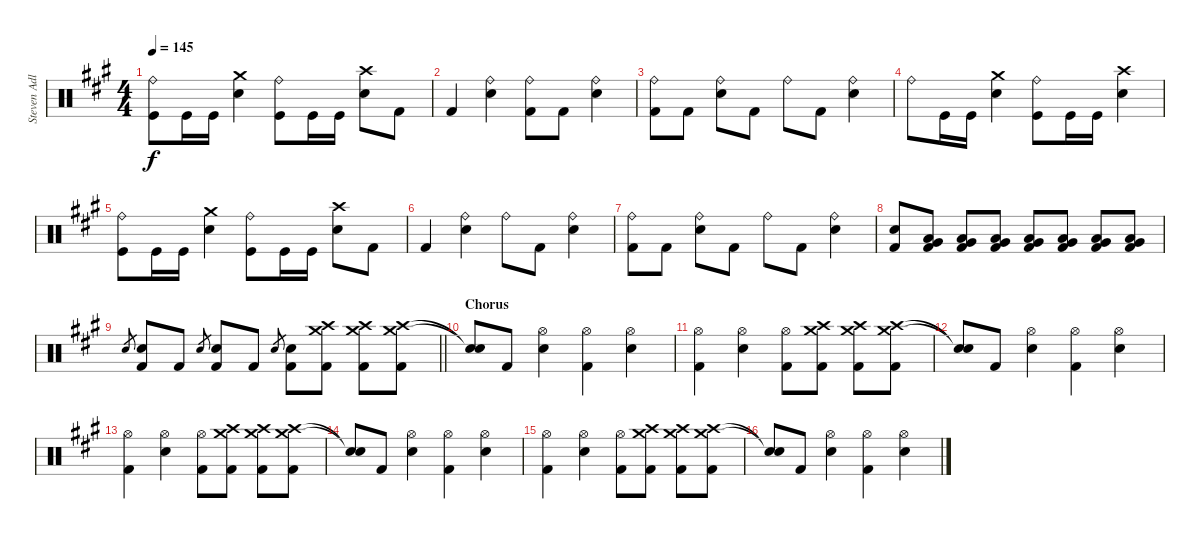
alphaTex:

\track ("Steven Adler - Drums" "Steven Adl") {instrument percussion}
\staff {score}
\articulation defaults
\ts (4 4)
\tempo 145
\clef neutral
\ks a
("Ride (bell)" "Kick (hit)").8{dy f} "Kick (hit)".16 "Kick (hit)".16 ("Crash medium (hit)" "Snare (hit) 2").4 ("Ride (bell)" "Kick (hit)").8 "Kick (hit)".16 "Kick (hit)".16 ("Crash high (hit)" "Snare (hit) 2").8 "Kick (hit) 2".8 |
"Kick (hit) 2".4 ("Ride (bell)" "Snare (hit) 2").4 ("Ride (bell)" "Kick (hit) 2").8 "Kick (hit) 2".8 ("Ride (bell)" "Snare (hit) 2").4 |
("Ride (bell)" "Kick (hit) 2").8 "Kick (hit) 2".8 ("Ride (bell)" "Snare (hit) 2").8 "Kick (hit) 2".8 "Ride (bell)".8 "Kick (hit) 2".8 ("Ride (bell)" "Snare (hit) 2").4 |
"Ride (bell)".8 "Kick (hit)".16 "Kick (hit)".16 ("Crash medium (hit)" "Snare (hit) 2").4 ("Ride (bell)" "Kick (hit)").8 "Kick (hit)".16 "Kick (hit)".16 ("Crash high (hit)" "Snare (hit) 2").4 |
("Ride (bell)" "Kick (hit)").8 "Kick (hit)".16 "Kick (hit)".16 ("Crash medium (hit)" "Snare (hit) 2").4 ("Ride (bell)" "Kick (hit)").8 "Kick (hit)".16 "Kick (hit)".16 ("Crash high (hit)" "Snare (hit) 2").8 "Kick (hit) 2".8 |
"Kick (hit) 2".4 ("Ride (bell)" "Snare (hit) 2").4 "Ride (bell)".8 "Kick (hit) 2".8 ("Ride (bell)" "Snare (hit) 2").4 |
("Ride (bell)" "Kick (hit) 2").8 "Kick (hit) 2".8 ("Ride (bell)" "Snare (hit) 2").8 "Kick (hit) 2".8 "Ride (bell)".8 "Kick (hit) 2".8 ("Ride (bell)" "Snare (hit) 2").4 |
("Snare (hit) 2" "Kick (hit) 2").8 ("Very Low Tom (hit)" "Low Tom (hit)" "Kick (hit) 2").8 ("Very Low Tom (hit)" "Low Tom (hit)" "Kick (hit) 2").8 ("Very Low Tom (hit)" "Low Tom (hit)" "Kick (hit) 2").8 ("Very Low Tom (hit)" "Low Tom (hit)" "Kick (hit) 2").8 ("Very Low Tom (hit)" "Low Tom (hit)" "Kick (hit) 2").8 ("Very Low Tom (hit)" "Low Tom (hit)" "Kick (hit) 2").8 ("Very Low Tom (hit)" "Low Tom (hit)" "Kick (hit) 2").8 |
\barLineRight lightlight "Snare (hit) 2".8{gr}
("Snare (hit) 2" "Kick (hit) 2").8 "Kick (hit) 2".8 "Snare (hit) 2".8{gr} ("Snare (hit) 2" "Kick (hit) 2").8 "Kick (hit) 2".8 "Snare (hit) 2".8{gr} ("Snare (hit) 2" "Kick (hit) 2").8 ("Crash medium (hit)" "Crash high (hit)" "Kick (hit) 2").8 ("Crash medium (hit)" "Crash high (hit)" "Kick (hit) 2").8 ("Crash medium (hit)" "Crash high (hit)" "Kick (hit) 2").8 |
\section ("" "Chorus")
("Snare (hit)"{t} "Snare (hit)"{t}).8 "Kick (hit) 2".8 ("Hi-Hat (open)" "Snare (hit) 2").4 ("Hi-Hat (open)" "Kick (hit) 2").4 ("Hi-Hat (open)" "Snare (hit) 2").4 |
("Hi-Hat (open)" "Kick (hit) 2").4 ("Hi-Hat (open)" "Snare (hit) 2").4 ("Hi-Hat (open)" "Kick (hit) 2").8 ("Crash medium (hit)" "Crash high (hit)" "Kick (hit) 2").8 ("Crash medium (hit)" "Crash high (hit)" "Kick (hit) 2").8 ("Crash medium (hit)" "Crash high (hit)" "Kick (hit) 2").8 |
("Snare (hit)"{t} "Snare (hit)"{t}).8 "Kick (hit) 2".8 ("Hi-Hat (open)" "Snare (hit) 2").4 ("Hi-Hat (open)" "Kick (hit) 2").4 ("Hi-Hat (open)" "Snare (hit) 2").4 |
("Hi-Hat (open)" "Kick (hit) 2").4 ("Hi-Hat (open)" "Snare (hit) 2").4 ("Hi-Hat (open)" "Kick (hit) 2").8 ("Crash medium (hit)" "Crash high (hit)" "Kick (hit) 2").8 ("Crash medium (hit)" "Crash high (hit)" "Kick (hit) 2").8 ("Crash medium (hit)" "Crash high (hit)" "Kick (hit) 2").8 |
("Snare (hit)"{t} "Snare (hit)"{t}).8 "Kick (hit) 2".8 ("Hi-Hat (open)" "Snare (hit) 2").4 ("Hi-Hat (open)" "Kick (hit) 2").4 ("Hi-Hat (open)" "Snare (hit) 2").4 |
("Hi-Hat (open)" "Kick (hit) 2").4 ("Hi-Hat (open)" "Snare (hit) 2").4 ("Hi-Hat (open)" "Kick (hit) 2").8 ("Crash medium (hit)" "Crash high (hit)" "Kick (hit) 2").8 ("Crash medium (hit)" "Crash high (hit)" "Kick (hit) 2").8 ("Crash medium (hit)" "Crash high (hit)" "Kick (hit) 2").8 |
("Snare (hit)"{t} "Snare (hit)"{t}).8 "Kick (hit) 2".8 ("Hi-Hat (open)" "Snare (hit) 2").4 ("Hi-Hat (open)" "Kick (hit) 2").4 ("Hi-Hat (open)" "Snare (hit) 2").4
